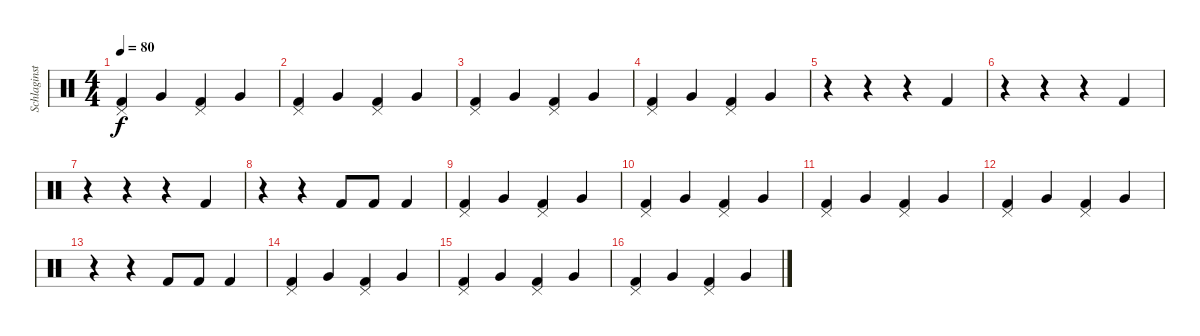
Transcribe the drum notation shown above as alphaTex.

\track ("Schlaginstrumente - Auswahl" "Schlaginst") {instrument percussion}
\staff {score}
\articulation defaults
\ts (4 4)
\tempo 80
\clef neutral
\ks c
("Kick (hit) 2" "Pedal Hi-Hat (hit)").4{dy f} "Very Low Tom (hit)".4 ("Kick (hit) 2" "Pedal Hi-Hat (hit)").4 "Very Low Tom (hit)".4 |
("Kick (hit) 2" "Pedal Hi-Hat (hit)").4 "Very Low Tom (hit)".4 ("Kick (hit) 2" "Pedal Hi-Hat (hit)").4 "Very Low Tom (hit)".4 |
("Kick (hit) 2" "Pedal Hi-Hat (hit)").4 "Very Low Tom (hit)".4 ("Kick (hit) 2" "Pedal Hi-Hat (hit)").4 "Very Low Tom (hit)".4 |
("Kick (hit) 2" "Pedal Hi-Hat (hit)").4 "Very Low Tom (hit)".4 ("Kick (hit) 2" "Pedal Hi-Hat (hit)").4 "Very Low Tom (hit)".4 |
r.4 r.4 r.4 "Kick (hit) 2".4 |
r.4 r.4 r.4 "Kick (hit) 2".4 |
r.4 r.4 r.4 "Kick (hit) 2".4 |
r.4 r.4 "Kick (hit) 2".8 "Kick (hit) 2".8 "Kick (hit) 2".4 |
("Kick (hit) 2" "Pedal Hi-Hat (hit)").4 "Very Low Tom (hit)".4 ("Kick (hit) 2" "Pedal Hi-Hat (hit)").4 "Very Low Tom (hit)".4 |
("Kick (hit) 2" "Pedal Hi-Hat (hit)").4 "Very Low Tom (hit)".4 ("Kick (hit) 2" "Pedal Hi-Hat (hit)").4 "Very Low Tom (hit)".4 |
("Kick (hit) 2" "Pedal Hi-Hat (hit)").4 "Very Low Tom (hit)".4 ("Kick (hit) 2" "Pedal Hi-Hat (hit)").4 "Very Low Tom (hit)".4 |
("Kick (hit) 2" "Pedal Hi-Hat (hit)").4 "Very Low Tom (hit)".4 ("Kick (hit) 2" "Pedal Hi-Hat (hit)").4 "Very Low Tom (hit)".4 |
r.4 r.4 "Kick (hit) 2".8 "Kick (hit) 2".8 "Kick (hit) 2".4 |
("Kick (hit) 2" "Pedal Hi-Hat (hit)").4 "Very Low Tom (hit)".4 ("Kick (hit) 2" "Pedal Hi-Hat (hit)").4 "Very Low Tom (hit)".4 |
("Kick (hit) 2" "Pedal Hi-Hat (hit)").4 "Very Low Tom (hit)".4 ("Kick (hit) 2" "Pedal Hi-Hat (hit)").4 "Very Low Tom (hit)".4 |
("Kick (hit) 2" "Pedal Hi-Hat (hit)").4 "Very Low Tom (hit)".4 ("Kick (hit) 2" "Pedal Hi-Hat (hit)").4 "Very Low Tom (hit)".4
